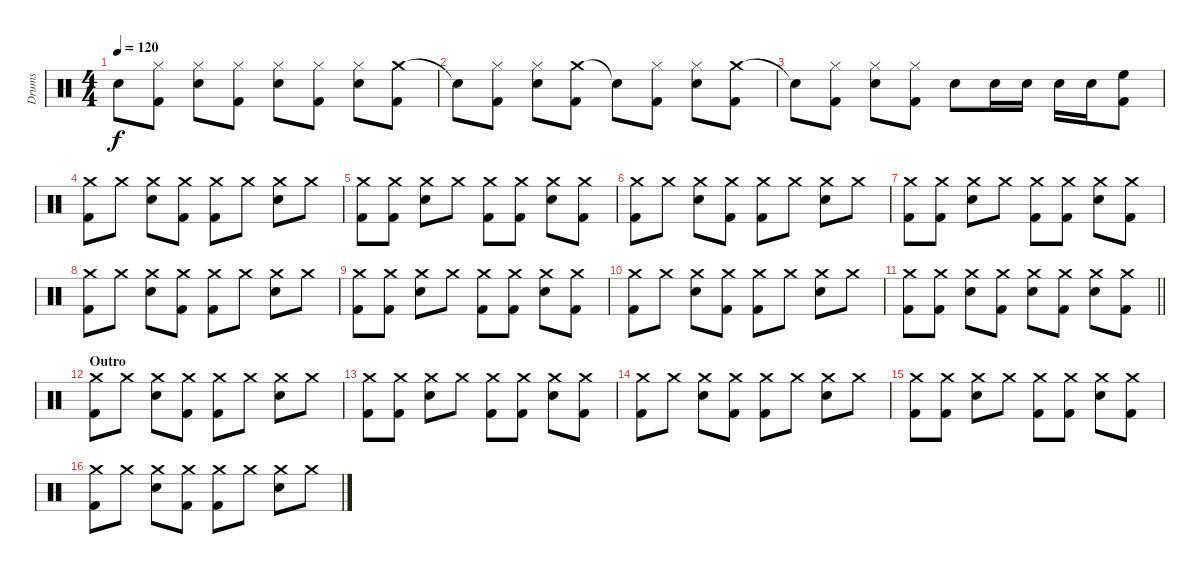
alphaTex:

\track ("Drums" "Drums") {instrument percussion}
\staff {score}
\articulation defaults
\ts (4 4)
\tempo 120
\clef neutral
\ks c "Snare (hit)"{t}.8{dy f}
("Hi-Hat (closed)" "Kick (hit) 2").8 ("Hi-Hat (closed)" "Snare (hit) 2").8 ("Hi-Hat (closed)" "Kick (hit) 2").8 ("Hi-Hat (closed)" "Snare (hit) 2").8 ("Hi-Hat (closed)" "Kick (hit) 2").8 ("Hi-Hat (closed)" "Snare (hit) 2").8 ("Crash medium (hit)" "Kick (hit) 2").8 |
"Snare (hit)"{t}.8 ("Hi-Hat (closed)" "Kick (hit) 2").8 ("Hi-Hat (closed)" "Snare (hit) 2").8 ("Crash medium (hit)" "Kick (hit) 2").8 "Snare (hit)"{t}.8 ("Hi-Hat (closed)" "Kick (hit) 2").8 ("Hi-Hat (closed)" "Snare (hit) 2").8 ("Crash medium (hit)" "Kick (hit) 2").8 |
"Snare (hit)"{t}.8 ("Hi-Hat (closed)" "Kick (hit) 2").8 ("Hi-Hat (closed)" "Snare (hit) 2").8 ("Hi-Hat (closed)" "Kick (hit) 2").8 "Snare (hit) 2".8 "Snare (hit) 2".16 "Snare (hit) 2".16 "Snare (hit) 2".16 "Snare (hit) 2".16 ("High Floor Tom (hit)" "Kick (hit) 2").8 |
("Crash medium (hit)" "Kick (hit) 2").8 "Crash medium (hit)".8 ("Crash medium (hit)" "Snare (hit) 2").8 ("Crash medium (hit)" "Kick (hit) 2").8 ("Crash medium (hit)" "Kick (hit) 2").8 "Crash medium (hit)".8 ("Crash medium (hit)" "Snare (hit) 2").8 "Crash medium (hit)".8 |
("Crash medium (hit)" "Kick (hit) 2").8 ("Crash medium (hit)" "Kick (hit) 2").8 ("Crash medium (hit)" "Snare (hit) 2").8 "Crash medium (hit)".8 ("Crash medium (hit)" "Kick (hit) 2").8 ("Crash medium (hit)" "Kick (hit) 2").8 ("Crash medium (hit)" "Snare (hit) 2").8 ("Crash medium (hit)" "Kick (hit) 2").8 |
("Crash medium (hit)" "Kick (hit) 2").8 "Crash medium (hit)".8 ("Crash medium (hit)" "Snare (hit) 2").8 ("Crash medium (hit)" "Kick (hit) 2").8 ("Crash medium (hit)" "Kick (hit) 2").8 "Crash medium (hit)".8 ("Crash medium (hit)" "Snare (hit) 2").8 "Crash medium (hit)".8 |
("Crash medium (hit)" "Kick (hit) 2").8 ("Crash medium (hit)" "Kick (hit) 2").8 ("Crash medium (hit)" "Snare (hit) 2").8 "Crash medium (hit)".8 ("Crash medium (hit)" "Kick (hit) 2").8 ("Crash medium (hit)" "Kick (hit) 2").8 ("Crash medium (hit)" "Snare (hit) 2").8 ("Crash medium (hit)" "Kick (hit) 2").8 |
("Crash medium (hit)" "Kick (hit) 2").8 "Crash medium (hit)".8 ("Crash medium (hit)" "Snare (hit) 2").8 ("Crash medium (hit)" "Kick (hit) 2").8 ("Crash medium (hit)" "Kick (hit) 2").8 "Crash medium (hit)".8 ("Crash medium (hit)" "Snare (hit) 2").8 "Crash medium (hit)".8 |
("Crash medium (hit)" "Kick (hit) 2").8 ("Crash medium (hit)" "Kick (hit) 2").8 ("Crash medium (hit)" "Snare (hit) 2").8 "Crash medium (hit)".8 ("Crash medium (hit)" "Kick (hit) 2").8 ("Crash medium (hit)" "Kick (hit) 2").8 ("Crash medium (hit)" "Snare (hit) 2").8 ("Crash medium (hit)" "Kick (hit) 2").8 |
("Crash medium (hit)" "Kick (hit) 2").8 "Crash medium (hit)".8 ("Crash medium (hit)" "Snare (hit) 2").8 ("Crash medium (hit)" "Kick (hit) 2").8 ("Crash medium (hit)" "Kick (hit) 2").8 "Crash medium (hit)".8 ("Crash medium (hit)" "Snare (hit) 2").8 "Crash medium (hit)".8 |
\barLineRight lightlight
("Crash medium (hit)" "Kick (hit) 2").8 ("Crash medium (hit)" "Kick (hit) 2").8 ("Crash medium (hit)" "Snare (hit) 2").8 ("Crash medium (hit)" "Kick (hit) 2").8 ("Crash medium (hit)" "Snare (hit) 2").8 ("Crash medium (hit)" "Kick (hit) 2").8 ("Crash medium (hit)" "Snare (hit) 2").8 ("Crash medium (hit)" "Kick (hit) 2").8 |
\section ("" "Outro")
("Crash medium (hit)" "Kick (hit) 2").8 "Crash medium (hit)".8 ("Crash medium (hit)" "Snare (hit) 2").8 ("Crash medium (hit)" "Kick (hit) 2").8 ("Crash medium (hit)" "Kick (hit) 2").8 "Crash medium (hit)".8 ("Crash medium (hit)" "Snare (hit) 2").8 "Crash medium (hit)".8 |
("Crash medium (hit)" "Kick (hit) 2").8 ("Crash medium (hit)" "Kick (hit) 2").8 ("Crash medium (hit)" "Snare (hit) 2").8 "Crash medium (hit)".8 ("Crash medium (hit)" "Kick (hit) 2").8 ("Crash medium (hit)" "Kick (hit) 2").8 ("Crash medium (hit)" "Snare (hit) 2").8 ("Crash medium (hit)" "Kick (hit) 2").8 |
("Crash medium (hit)" "Kick (hit) 2").8 "Crash medium (hit)".8 ("Crash medium (hit)" "Snare (hit) 2").8 ("Crash medium (hit)" "Kick (hit) 2").8 ("Crash medium (hit)" "Kick (hit) 2").8 "Crash medium (hit)".8 ("Crash medium (hit)" "Snare (hit) 2").8 "Crash medium (hit)".8 |
("Crash medium (hit)" "Kick (hit) 2").8 ("Crash medium (hit)" "Kick (hit) 2").8 ("Crash medium (hit)" "Snare (hit) 2").8 "Crash medium (hit)".8 ("Crash medium (hit)" "Kick (hit) 2").8 ("Crash medium (hit)" "Kick (hit) 2").8 ("Crash medium (hit)" "Snare (hit) 2").8 ("Crash medium (hit)" "Kick (hit) 2").8 |
("Crash medium (hit)" "Kick (hit) 2").8 "Crash medium (hit)".8 ("Crash medium (hit)" "Snare (hit) 2").8 ("Crash medium (hit)" "Kick (hit) 2").8 ("Crash medium (hit)" "Kick (hit) 2").8 "Crash medium (hit)".8 ("Crash medium (hit)" "Snare (hit) 2").8 "Crash medium (hit)".8
